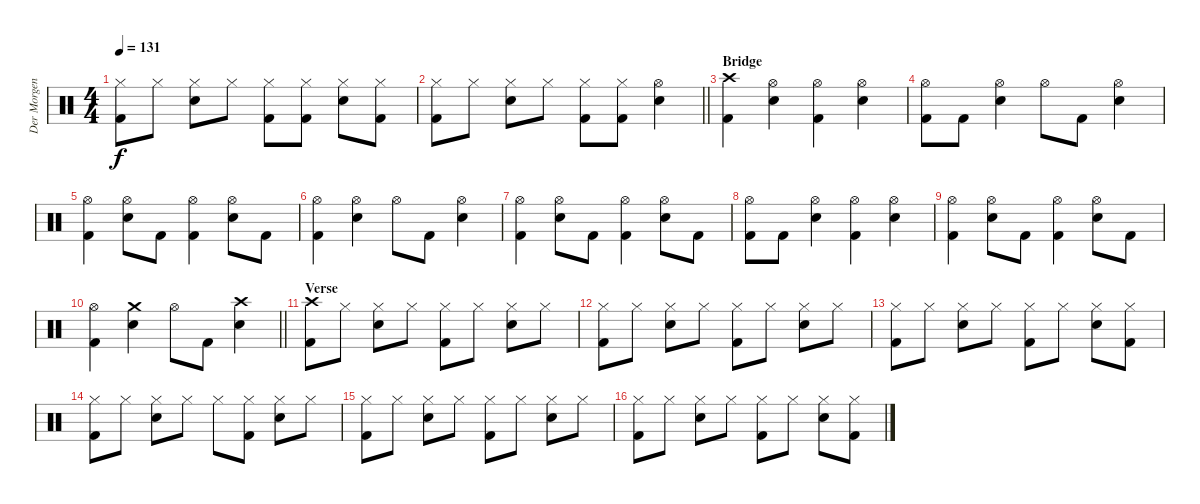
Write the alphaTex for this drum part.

\track ("Der Morgenstern" "Der Morgen") {instrument percussion}
\staff {score}
\articulation defaults
\ts (4 4)
\tempo 131
\clef neutral
\ks c
("Hi-Hat (closed)" "Kick (hit) 2").8{dy f} "Hi-Hat (closed)".8 ("Hi-Hat (closed)" "Electric Snare (hit)").8 "Hi-Hat (closed)".8 ("Hi-Hat (closed)" "Kick (hit) 2").8 ("Hi-Hat (closed)" "Kick (hit) 2").8 ("Hi-Hat (closed)" "Electric Snare (hit)").8 ("Hi-Hat (closed)" "Kick (hit) 2").8 |
\barLineRight lightlight
("Hi-Hat (closed)" "Kick (hit) 2").8 "Hi-Hat (closed)".8 ("Hi-Hat (closed)" "Electric Snare (hit)").8 "Hi-Hat (closed)".8 ("Hi-Hat (closed)" "Kick (hit) 2").8 ("Hi-Hat (closed)" "Kick (hit) 2").8 ("Hi-Hat (open)" "Electric Snare (hit)").4 |
\section ("" "Bridge")
("Crash high (hit)" "Kick (hit) 2").4 ("Hi-Hat (open)" "Electric Snare (hit)").4 ("Hi-Hat (open)" "Kick (hit) 2").4 ("Hi-Hat (open)" "Electric Snare (hit)").4 |
("Hi-Hat (open)" "Kick (hit) 2").8 "Kick (hit) 2".8 ("Hi-Hat (open)" "Electric Snare (hit)").4 "Hi-Hat (open)".8 "Kick (hit) 2".8 ("Hi-Hat (open)" "Electric Snare (hit)").4 |
("Hi-Hat (open)" "Kick (hit) 2").4 ("Hi-Hat (open)" "Electric Snare (hit)").8 "Kick (hit) 2".8 ("Hi-Hat (open)" "Kick (hit) 2").4 ("Hi-Hat (open)" "Electric Snare (hit)").8 "Kick (hit) 2".8 |
("Hi-Hat (open)" "Kick (hit) 2").4 ("Hi-Hat (open)" "Electric Snare (hit)").4 "Hi-Hat (open)".8 "Kick (hit) 2".8 ("Hi-Hat (open)" "Electric Snare (hit)").4 |
("Hi-Hat (open)" "Kick (hit) 2").4 ("Hi-Hat (open)" "Electric Snare (hit)").8 "Kick (hit) 2".8 ("Hi-Hat (open)" "Kick (hit) 2").4 ("Hi-Hat (open)" "Electric Snare (hit)").8 "Kick (hit) 2".8 |
("Hi-Hat (open)" "Kick (hit) 2").8 "Kick (hit) 2".8 ("Hi-Hat (open)" "Electric Snare (hit)").4 ("Hi-Hat (open)" "Kick (hit) 2").4 ("Hi-Hat (open)" "Electric Snare (hit)").4 |
("Hi-Hat (open)" "Kick (hit) 2").4 ("Hi-Hat (open)" "Electric Snare (hit)").8 "Kick (hit) 2".8 ("Hi-Hat (open)" "Kick (hit) 2").4 ("Hi-Hat (open)" "Electric Snare (hit)").8 "Kick (hit) 2".8 |
\barLineRight lightlight
("Hi-Hat (open)" "Kick (hit) 2").4 ("Crash medium (hit)" "Electric Snare (hit)").4 "Hi-Hat (open)".8 "Kick (hit) 2".8 ("Crash high (hit)" "Electric Snare (hit)").4 |
\section ("" "Verse")
("Crash high (hit)" "Kick (hit) 2").8 "Hi-Hat (closed)".8 ("Hi-Hat (closed)" "Electric Snare (hit)").8 "Hi-Hat (closed)".8 ("Hi-Hat (closed)" "Kick (hit) 2").8 "Hi-Hat (closed)".8 ("Hi-Hat (closed)" "Electric Snare (hit)").8 "Hi-Hat (closed)".8 |
("Hi-Hat (closed)" "Kick (hit) 2").8 "Hi-Hat (closed)".8 ("Hi-Hat (closed)" "Electric Snare (hit)").8 "Hi-Hat (closed)".8 ("Hi-Hat (closed)" "Kick (hit) 2").8 "Hi-Hat (closed)".8 ("Hi-Hat (closed)" "Electric Snare (hit)").8 "Hi-Hat (closed)".8 |
("Hi-Hat (closed)" "Kick (hit) 2").8 "Hi-Hat (closed)".8 ("Hi-Hat (closed)" "Electric Snare (hit)").8 "Hi-Hat (closed)".8 ("Hi-Hat (closed)" "Kick (hit) 2").8 "Hi-Hat (closed)".8 ("Hi-Hat (closed)" "Electric Snare (hit)").8 ("Hi-Hat (closed)" "Kick (hit) 2").8 |
("Hi-Hat (closed)" "Kick (hit) 2").8 "Hi-Hat (closed)".8 ("Hi-Hat (closed)" "Electric Snare (hit)").8 "Hi-Hat (closed)".8 "Hi-Hat (closed)".8 ("Hi-Hat (closed)" "Kick (hit) 2").8 ("Hi-Hat (closed)" "Electric Snare (hit)").8 "Hi-Hat (closed)".8 |
("Hi-Hat (closed)" "Kick (hit) 2").8 "Hi-Hat (closed)".8 ("Hi-Hat (closed)" "Electric Snare (hit)").8 "Hi-Hat (closed)".8 ("Hi-Hat (closed)" "Kick (hit) 2").8 "Hi-Hat (closed)".8 ("Hi-Hat (closed)" "Electric Snare (hit)").8 "Hi-Hat (closed)".8 |
("Hi-Hat (closed)" "Kick (hit) 2").8 "Hi-Hat (closed)".8 ("Hi-Hat (closed)" "Electric Snare (hit)").8 "Hi-Hat (closed)".8 ("Hi-Hat (closed)" "Kick (hit) 2").8 "Hi-Hat (closed)".8 ("Hi-Hat (closed)" "Electric Snare (hit)").8 ("Hi-Hat (closed)" "Kick (hit) 2").8
